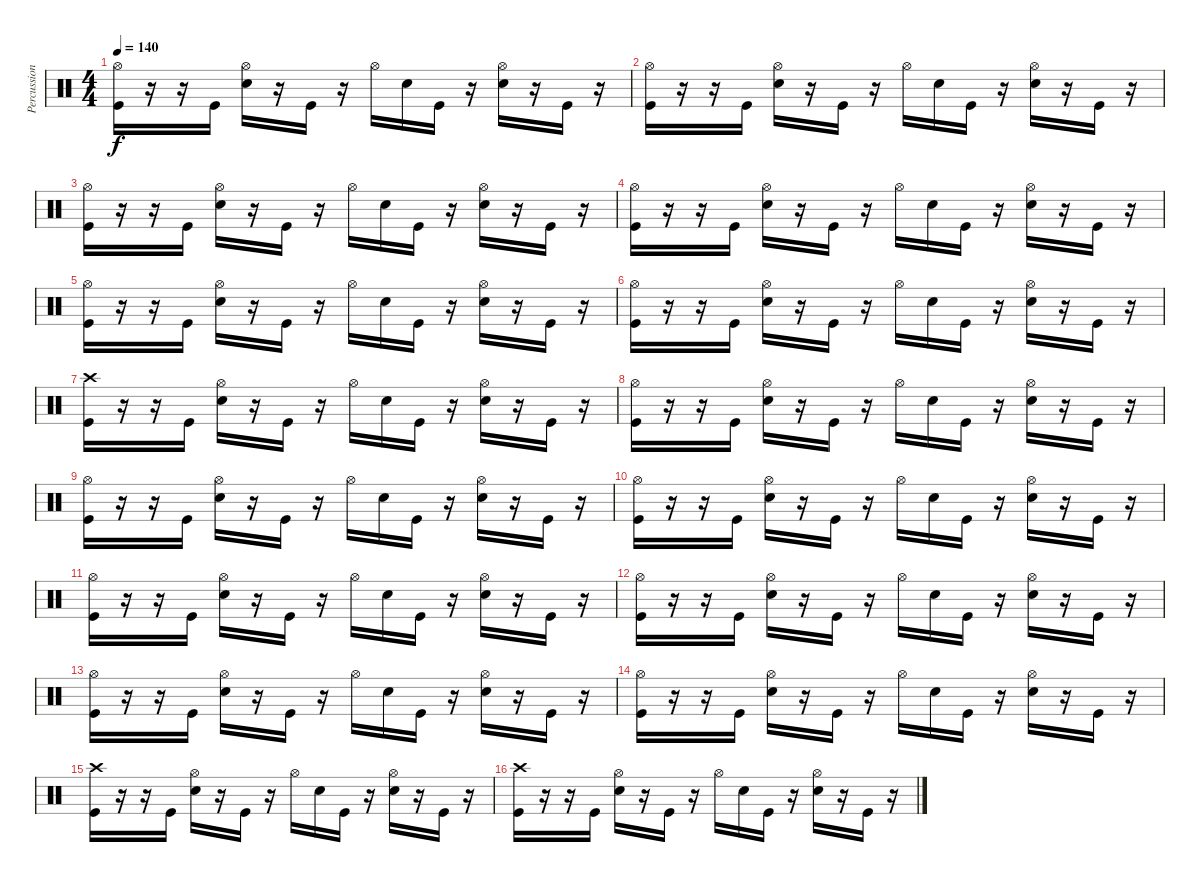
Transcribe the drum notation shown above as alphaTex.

\track ("Percussion" "Percussion") {instrument percussion}
\staff {score}
\articulation defaults
\ts (4 4)
\tempo 140
\clef neutral
\ks c
("Hi-Hat (open)" "Kick (hit)").16{dy f} r.16 r.16 "Kick (hit)".16 ("Hi-Hat (open)" "Electric Snare (hit)").16 r.16 "Kick (hit)".16 r.16 "Hi-Hat (open)".16 "Electric Snare (hit)".16 "Kick (hit)".16 r.16 ("Hi-Hat (open)" "Electric Snare (hit)").16 r.16 "Kick (hit)".16 r.16 |
("Hi-Hat (open)" "Kick (hit)").16 r.16 r.16 "Kick (hit)".16 ("Hi-Hat (open)" "Electric Snare (hit)").16 r.16 "Kick (hit)".16 r.16 "Hi-Hat (open)".16 "Electric Snare (hit)".16 "Kick (hit)".16 r.16 ("Hi-Hat (open)" "Electric Snare (hit)").16 r.16 "Kick (hit)".16 r.16 |
("Hi-Hat (open)" "Kick (hit)").16 r.16 r.16 "Kick (hit)".16 ("Hi-Hat (open)" "Electric Snare (hit)").16 r.16 "Kick (hit)".16 r.16 "Hi-Hat (open)".16 "Electric Snare (hit)".16 "Kick (hit)".16 r.16 ("Hi-Hat (open)" "Electric Snare (hit)").16 r.16 "Kick (hit)".16 r.16 |
("Hi-Hat (open)" "Kick (hit)").16 r.16 r.16 "Kick (hit)".16 ("Hi-Hat (open)" "Electric Snare (hit)").16 r.16 "Kick (hit)".16 r.16 "Hi-Hat (open)".16 "Electric Snare (hit)".16 "Kick (hit)".16 r.16 ("Hi-Hat (open)" "Electric Snare (hit)").16 r.16 "Kick (hit)".16 r.16 |
("Hi-Hat (open)" "Kick (hit)").16 r.16 r.16 "Kick (hit)".16 ("Hi-Hat (open)" "Electric Snare (hit)").16 r.16 "Kick (hit)".16 r.16 "Hi-Hat (open)".16 "Electric Snare (hit)".16 "Kick (hit)".16 r.16 ("Hi-Hat (open)" "Electric Snare (hit)").16 r.16 "Kick (hit)".16 r.16 |
("Hi-Hat (open)" "Kick (hit)").16 r.16 r.16 "Kick (hit)".16 ("Hi-Hat (open)" "Electric Snare (hit)").16 r.16 "Kick (hit)".16 r.16 "Hi-Hat (open)".16 "Electric Snare (hit)".16 "Kick (hit)".16 r.16 ("Hi-Hat (open)" "Electric Snare (hit)").16 r.16 "Kick (hit)".16 r.16 |
("Crash high (hit)" "Kick (hit)").16 r.16 r.16 "Kick (hit)".16 ("Hi-Hat (open)" "Electric Snare (hit)").16 r.16 "Kick (hit)".16 r.16 "Hi-Hat (open)".16 "Electric Snare (hit)".16 "Kick (hit)".16 r.16 ("Hi-Hat (open)" "Electric Snare (hit)").16 r.16 "Kick (hit)".16 r.16 |
("Hi-Hat (open)" "Kick (hit)").16 r.16 r.16 "Kick (hit)".16 ("Hi-Hat (open)" "Electric Snare (hit)").16 r.16 "Kick (hit)".16 r.16 "Hi-Hat (open)".16 "Electric Snare (hit)".16 "Kick (hit)".16 r.16 ("Hi-Hat (open)" "Electric Snare (hit)").16 r.16 "Kick (hit)".16 r.16 |
("Hi-Hat (open)" "Kick (hit)").16 r.16 r.16 "Kick (hit)".16 ("Hi-Hat (open)" "Electric Snare (hit)").16 r.16 "Kick (hit)".16 r.16 "Hi-Hat (open)".16 "Electric Snare (hit)".16 "Kick (hit)".16 r.16 ("Hi-Hat (open)" "Electric Snare (hit)").16 r.16 "Kick (hit)".16 r.16 |
("Hi-Hat (open)" "Kick (hit)").16 r.16 r.16 "Kick (hit)".16 ("Hi-Hat (open)" "Electric Snare (hit)").16 r.16 "Kick (hit)".16 r.16 "Hi-Hat (open)".16 "Electric Snare (hit)".16 "Kick (hit)".16 r.16 ("Hi-Hat (open)" "Electric Snare (hit)").16 r.16 "Kick (hit)".16 r.16 |
("Hi-Hat (open)" "Kick (hit)").16 r.16 r.16 "Kick (hit)".16 ("Hi-Hat (open)" "Electric Snare (hit)").16 r.16 "Kick (hit)".16 r.16 "Hi-Hat (open)".16 "Electric Snare (hit)".16 "Kick (hit)".16 r.16 ("Hi-Hat (open)" "Electric Snare (hit)").16 r.16 "Kick (hit)".16 r.16 |
("Hi-Hat (open)" "Kick (hit)").16 r.16 r.16 "Kick (hit)".16 ("Hi-Hat (open)" "Electric Snare (hit)").16 r.16 "Kick (hit)".16 r.16 "Hi-Hat (open)".16 "Electric Snare (hit)".16 "Kick (hit)".16 r.16 ("Hi-Hat (open)" "Electric Snare (hit)").16 r.16 "Kick (hit)".16 r.16 |
("Hi-Hat (open)" "Kick (hit)").16 r.16 r.16 "Kick (hit)".16 ("Hi-Hat (open)" "Electric Snare (hit)").16 r.16 "Kick (hit)".16 r.16 "Hi-Hat (open)".16 "Electric Snare (hit)".16 "Kick (hit)".16 r.16 ("Hi-Hat (open)" "Electric Snare (hit)").16 r.16 "Kick (hit)".16 r.16 |
("Hi-Hat (open)" "Kick (hit)").16 r.16 r.16 "Kick (hit)".16 ("Hi-Hat (open)" "Electric Snare (hit)").16 r.16 "Kick (hit)".16 r.16 "Hi-Hat (open)".16 "Electric Snare (hit)".16 "Kick (hit)".16 r.16 ("Hi-Hat (open)" "Electric Snare (hit)").16 r.16 "Kick (hit)".16 r.16 |
("Crash high (hit)" "Kick (hit)").16 r.16 r.16 "Kick (hit)".16 ("Hi-Hat (open)" "Electric Snare (hit)").16 r.16 "Kick (hit)".16 r.16 "Hi-Hat (open)".16 "Electric Snare (hit)".16 "Kick (hit)".16 r.16 ("Hi-Hat (open)" "Electric Snare (hit)").16 r.16 "Kick (hit)".16 r.16 |
("Crash high (hit)" "Kick (hit)").16 r.16 r.16 "Kick (hit)".16 ("Hi-Hat (open)" "Electric Snare (hit)").16 r.16 "Kick (hit)".16 r.16 "Hi-Hat (open)".16 "Electric Snare (hit)".16 "Kick (hit)".16 r.16 ("Hi-Hat (open)" "Electric Snare (hit)").16 r.16 "Kick (hit)".16 r.16
